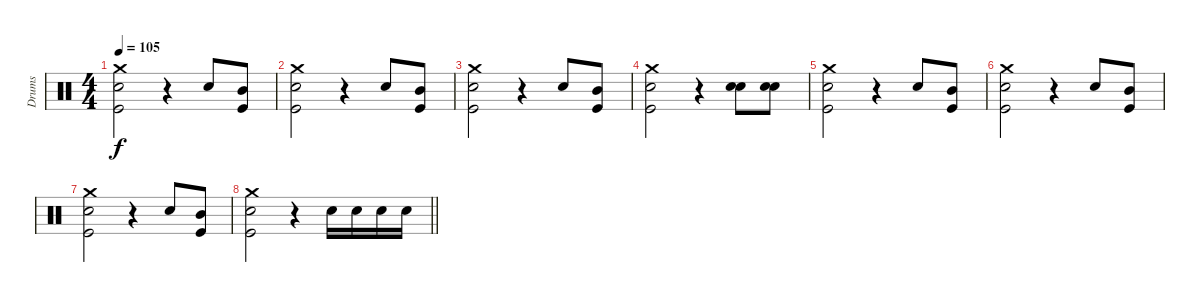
\track ("Drums" "Drums") {instrument percussion}
\staff {score}
\articulation defaults
\ts (4 4)
\tempo 105
\clef neutral
\ks c
("Crash medium (hit)" "Snare (hit) 2" "Kick (hit)").2{dy f} r.4 "Snare (hit) 2".8 ("Mid Tom (hit)" "Kick (hit)").8 |
("Crash medium (hit)" "Snare (hit) 2" "Kick (hit)").2 r.4 "Snare (hit) 2".8 ("Mid Tom (hit)" "Kick (hit)").8 |
("Crash medium (hit)" "Snare (hit) 2" "Kick (hit)").2 r.4 "Snare (hit) 2".8 ("Mid Tom (hit)" "Kick (hit)").8 |
("Crash medium (hit)" "Snare (hit) 2" "Kick (hit)").2 r.4 ("Snare (hit) 2" "Snare (hit) 2").8 ("Snare (hit) 2" "Snare (hit) 2").8 |
("Crash medium (hit)" "Snare (hit) 2" "Kick (hit)").2 r.4 "Snare (hit) 2".8 ("Mid Tom (hit)" "Kick (hit)").8 |
("Crash medium (hit)" "Snare (hit) 2" "Kick (hit)").2 r.4 "Snare (hit) 2".8 ("Mid Tom (hit)" "Kick (hit)").8 |
("Crash medium (hit)" "Snare (hit) 2" "Kick (hit)").2 r.4 "Snare (hit) 2".8 ("Mid Tom (hit)" "Kick (hit)").8 |
\barLineRight lightlight
("Crash medium (hit)" "Snare (hit) 2" "Kick (hit)").2 r.4 "Snare (hit) 2".16 "Snare (hit) 2".16 "Snare (hit) 2".16 "Snare (hit) 2".16
